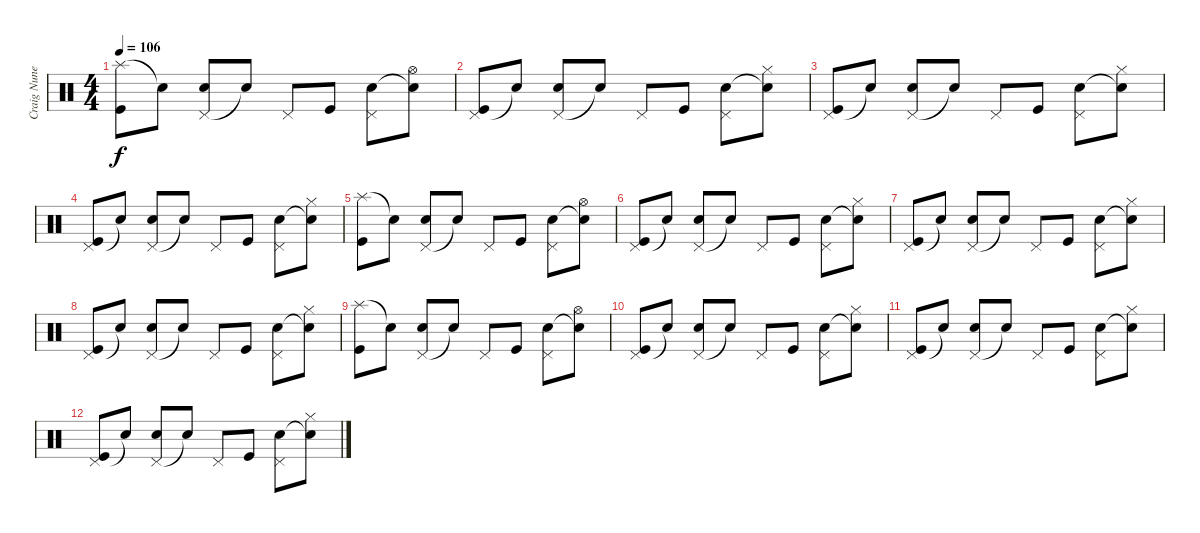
\track ("Craig Nunenmacher (Drums)" "Craig Nune") {instrument percussion}
\staff {score}
\articulation defaults
\ts (4 4)
\tempo 106
\clef neutral
\ks c
("Splash (hit)" "Kick (hit)").8{dy f} "Snare (hit)"{t}.8 ("Pedal Hi-Hat (hit)" "Electric Snare (hit)").8 "Snare (hit)"{t}.8 "Pedal Hi-Hat (hit)".8 "Kick (hit)".8 ("Pedal Hi-Hat (hit)" "Electric Snare (hit)").8 ("Hi-Hat (open)" "Snare (hit)"{t}).8 |
("Pedal Hi-Hat (hit)" "Kick (hit)").8 "Snare (hit)"{t}.8 ("Pedal Hi-Hat (hit)" "Electric Snare (hit)").8 "Snare (hit)"{t}.8 "Pedal Hi-Hat (hit)".8 "Kick (hit)".8 ("Pedal Hi-Hat (hit)" "Electric Snare (hit)").8 ("Hi-Hat (closed)" "Snare (hit)"{t}).8 |
("Pedal Hi-Hat (hit)" "Kick (hit)").8 "Snare (hit)"{t}.8 ("Pedal Hi-Hat (hit)" "Electric Snare (hit)").8 "Snare (hit)"{t}.8 "Pedal Hi-Hat (hit)".8 "Kick (hit)".8 ("Pedal Hi-Hat (hit)" "Electric Snare (hit)").8 ("Hi-Hat (closed)" "Snare (hit)"{t}).8 |
("Pedal Hi-Hat (hit)" "Kick (hit)").8 "Snare (hit)"{t}.8 ("Pedal Hi-Hat (hit)" "Electric Snare (hit)").8 "Snare (hit)"{t}.8 "Pedal Hi-Hat (hit)".8 "Kick (hit)".8 ("Pedal Hi-Hat (hit)" "Electric Snare (hit)").8 ("Hi-Hat (closed)" "Snare (hit)"{t}).8 |
("Splash (hit)" "Kick (hit)").8 "Snare (hit)"{t}.8 ("Pedal Hi-Hat (hit)" "Electric Snare (hit)").8 "Snare (hit)"{t}.8 "Pedal Hi-Hat (hit)".8 "Kick (hit)".8 ("Pedal Hi-Hat (hit)" "Electric Snare (hit)").8 ("Hi-Hat (open)" "Snare (hit)"{t}).8 |
("Pedal Hi-Hat (hit)" "Kick (hit)").8 "Snare (hit)"{t}.8 ("Pedal Hi-Hat (hit)" "Electric Snare (hit)").8 "Snare (hit)"{t}.8 "Pedal Hi-Hat (hit)".8 "Kick (hit)".8 ("Pedal Hi-Hat (hit)" "Electric Snare (hit)").8 ("Hi-Hat (closed)" "Snare (hit)"{t}).8 |
("Pedal Hi-Hat (hit)" "Kick (hit)").8 "Snare (hit)"{t}.8 ("Pedal Hi-Hat (hit)" "Electric Snare (hit)").8 "Snare (hit)"{t}.8 "Pedal Hi-Hat (hit)".8 "Kick (hit)".8 ("Pedal Hi-Hat (hit)" "Electric Snare (hit)").8 ("Hi-Hat (closed)" "Snare (hit)"{t}).8 |
("Pedal Hi-Hat (hit)" "Kick (hit)").8 "Snare (hit)"{t}.8 ("Pedal Hi-Hat (hit)" "Electric Snare (hit)").8 "Snare (hit)"{t}.8 "Pedal Hi-Hat (hit)".8 "Kick (hit)".8 ("Pedal Hi-Hat (hit)" "Electric Snare (hit)").8 ("Hi-Hat (closed)" "Snare (hit)"{t}).8 |
("Splash (hit)" "Kick (hit)").8 "Snare (hit)"{t}.8 ("Pedal Hi-Hat (hit)" "Electric Snare (hit)").8 "Snare (hit)"{t}.8 "Pedal Hi-Hat (hit)".8 "Kick (hit)".8 ("Pedal Hi-Hat (hit)" "Electric Snare (hit)").8 ("Hi-Hat (open)" "Snare (hit)"{t}).8 |
("Pedal Hi-Hat (hit)" "Kick (hit)").8 "Snare (hit)"{t}.8 ("Pedal Hi-Hat (hit)" "Electric Snare (hit)").8 "Snare (hit)"{t}.8 "Pedal Hi-Hat (hit)".8 "Kick (hit)".8 ("Pedal Hi-Hat (hit)" "Electric Snare (hit)").8 ("Hi-Hat (closed)" "Snare (hit)"{t}).8 |
("Pedal Hi-Hat (hit)" "Kick (hit)").8 "Snare (hit)"{t}.8 ("Pedal Hi-Hat (hit)" "Electric Snare (hit)").8 "Snare (hit)"{t}.8 "Pedal Hi-Hat (hit)".8 "Kick (hit)".8 ("Pedal Hi-Hat (hit)" "Electric Snare (hit)").8 ("Hi-Hat (closed)" "Snare (hit)"{t}).8 |
("Pedal Hi-Hat (hit)" "Kick (hit)").8 "Snare (hit)"{t}.8 ("Pedal Hi-Hat (hit)" "Electric Snare (hit)").8 "Snare (hit)"{t}.8 "Pedal Hi-Hat (hit)".8 "Kick (hit)".8 ("Pedal Hi-Hat (hit)" "Electric Snare (hit)").8 ("Hi-Hat (closed)" "Snare (hit)"{t}).8
